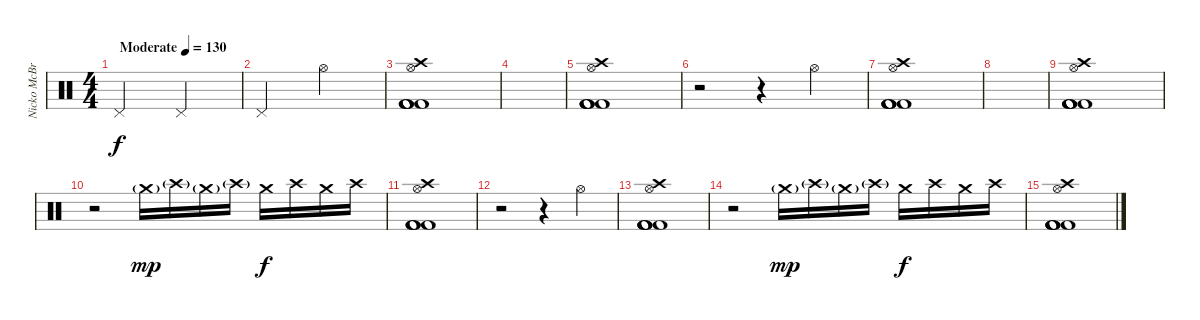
\track ("Nicko McBrain" "Nicko McBr") {instrument percussion}
\staff {score}
\articulation defaults
\ts (4 4)
\tempo (130 "Moderate")
\clef neutral
\ks c "Pedal Hi-Hat (hit)".2{dy f} "Pedal Hi-Hat (hit)".2
|
"Pedal Hi-Hat (hit)".2 "Hi-Hat (open)".2 |
("Crash high (hit)" "Hi-Hat (open)" "Kick (hit) 2" "Kick (hit) 2" "Kick (hit) 2" "Kick (hit) 2").1 |
|
("Crash high (hit)" "Hi-Hat (open)" "Kick (hit) 2" "Kick (hit) 2" "Kick (hit) 2" "Kick (hit) 2").1 |
r.2 r.4 "Hi-Hat (open)".4 |
("Crash high (hit)" "Hi-Hat (open)" "Kick (hit) 2" "Kick (hit) 2" "Kick (hit) 2" "Kick (hit) 2").1 |
|
("Crash high (hit)" "Hi-Hat (open)" "Kick (hit) 2" "Kick (hit) 2" "Kick (hit) 2" "Kick (hit) 2").1 |
r.2 "Crash medium (hit)"{g}.16{dy mp} "Crash high (hit)"{g}.16 "Crash medium (hit)"{g}.16 "Crash high (hit)"{g}.16 "Crash medium (hit)".16{dy f} "Crash high (hit)".16 "Crash medium (hit)".16 "Crash high (hit)".16 |
("Crash high (hit)" "Hi-Hat (open)" "Kick (hit) 2" "Kick (hit) 2" "Kick (hit) 2" "Kick (hit) 2").1 |
r.2 r.4 "Hi-Hat (open)".4 |
("Crash high (hit)" "Hi-Hat (open)" "Kick (hit) 2" "Kick (hit) 2" "Kick (hit) 2" "Kick (hit) 2").1 |
r.2 "Crash medium (hit)"{g}.16{dy mp} "Crash high (hit)"{g}.16 "Crash medium (hit)"{g}.16 "Crash high (hit)"{g}.16 "Crash medium (hit)".16{dy f} "Crash high (hit)".16 "Crash medium (hit)".16 "Crash high (hit)".16 |
("Crash high (hit)" "Hi-Hat (open)" "Kick (hit) 2" "Kick (hit) 2" "Kick (hit) 2" "Kick (hit) 2").1
